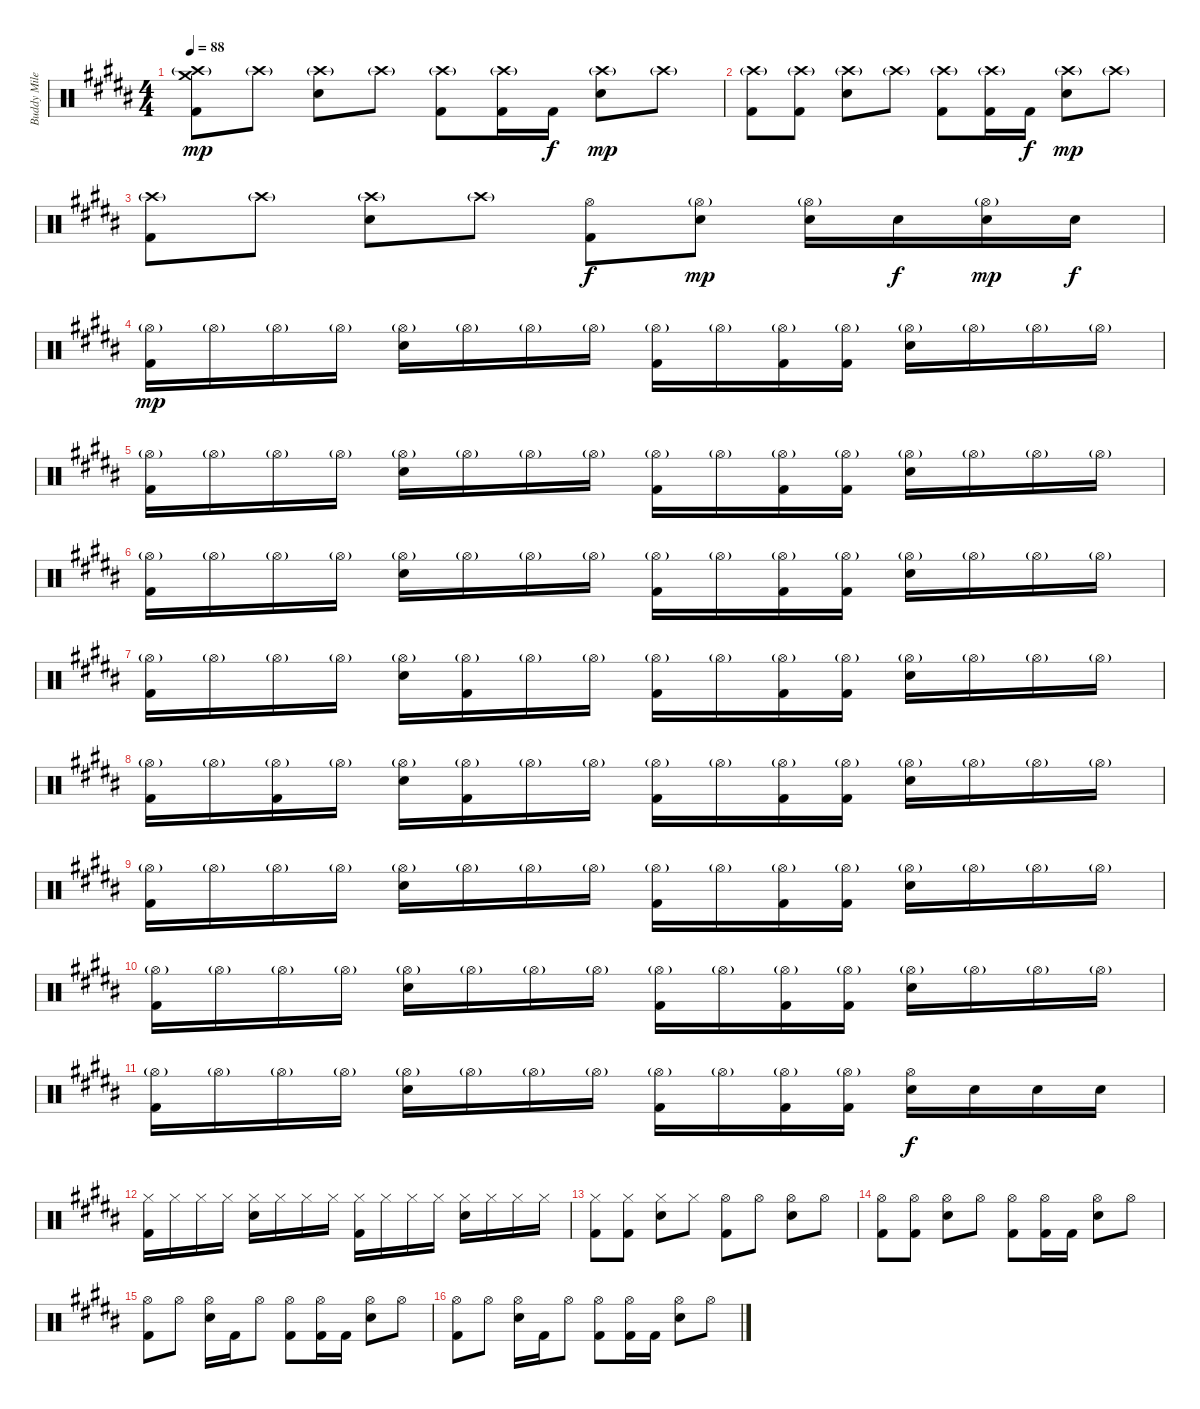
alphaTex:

\track ("Buddy Miles" "Buddy Mile") {instrument percussion}
\staff {score}
\articulation defaults
\ts (4 4)
\tempo 88
\clef neutral
\ks b
("Crash high (hit)"{g} "Kick (hit) 2" "Crash medium (hit)").8{dy mp} "Crash high (hit)"{g}.8 ("Crash high (hit)"{g} "Electric Snare (hit)").8 "Crash high (hit)"{g}.8 ("Crash high (hit)"{g} "Kick (hit) 2").8 ("Crash high (hit)"{g} "Kick (hit) 2").16 "Kick (hit) 2".16{dy f} ("Crash high (hit)"{g} "Electric Snare (hit)").8{dy mp} "Crash high (hit)"{g}.8 |
("Crash high (hit)"{g} "Kick (hit) 2").8 ("Crash high (hit)"{g} "Kick (hit) 2").8 ("Crash high (hit)"{g} "Electric Snare (hit)").8 "Crash high (hit)"{g}.8 ("Crash high (hit)"{g} "Kick (hit) 2").8 ("Crash high (hit)"{g} "Kick (hit) 2").16 "Kick (hit) 2".16{dy f} ("Crash high (hit)"{g} "Electric Snare (hit)").8{dy mp} "Crash high (hit)"{g}.8 |
("Crash high (hit)"{g} "Kick (hit) 2").8 "Crash high (hit)"{g}.8 ("Crash high (hit)"{g} "Electric Snare (hit)").8 "Crash high (hit)"{g}.8 ("Hi-Hat (open)" "Kick (hit) 2").8{dy f} ("Hi-Hat (open)"{g} "Electric Snare (hit)").8{dy mp} ("Hi-Hat (open)"{g} "Electric Snare (hit)").16 "Electric Snare (hit)".16{dy f} ("Hi-Hat (open)"{g} "Electric Snare (hit)").16{dy mp} "Electric Snare (hit)".16{dy f} |
("Hi-Hat (open)"{g} "Kick (hit) 2").16{dy mp} "Hi-Hat (open)"{g}.16 "Hi-Hat (open)"{g}.16 "Hi-Hat (open)"{g}.16 ("Hi-Hat (open)"{g} "Electric Snare (hit)").16 "Hi-Hat (open)"{g}.16 "Hi-Hat (open)"{g}.16 "Hi-Hat (open)"{g}.16 ("Hi-Hat (open)"{g} "Kick (hit) 2").16 "Hi-Hat (open)"{g}.16 ("Hi-Hat (open)"{g} "Kick (hit) 2").16 ("Hi-Hat (open)"{g} "Kick (hit) 2").16 ("Hi-Hat (open)"{g} "Electric Snare (hit)").16 "Hi-Hat (open)"{g}.16 "Hi-Hat (open)"{g}.16 "Hi-Hat (open)"{g}.16 |
("Hi-Hat (open)"{g} "Kick (hit) 2").16 "Hi-Hat (open)"{g}.16 "Hi-Hat (open)"{g}.16 "Hi-Hat (open)"{g}.16 ("Hi-Hat (open)"{g} "Electric Snare (hit)").16 "Hi-Hat (open)"{g}.16 "Hi-Hat (open)"{g}.16 "Hi-Hat (open)"{g}.16 ("Hi-Hat (open)"{g} "Kick (hit) 2").16 "Hi-Hat (open)"{g}.16 ("Hi-Hat (open)"{g} "Kick (hit) 2").16 ("Hi-Hat (open)"{g} "Kick (hit) 2").16 ("Hi-Hat (open)"{g} "Electric Snare (hit)").16 "Hi-Hat (open)"{g}.16 "Hi-Hat (open)"{g}.16 "Hi-Hat (open)"{g}.16 |
("Hi-Hat (open)"{g} "Kick (hit) 2").16 "Hi-Hat (open)"{g}.16 "Hi-Hat (open)"{g}.16 "Hi-Hat (open)"{g}.16 ("Hi-Hat (open)"{g} "Electric Snare (hit)").16 "Hi-Hat (open)"{g}.16 "Hi-Hat (open)"{g}.16 "Hi-Hat (open)"{g}.16 ("Hi-Hat (open)"{g} "Kick (hit) 2").16 "Hi-Hat (open)"{g}.16 ("Hi-Hat (open)"{g} "Kick (hit) 2").16 ("Hi-Hat (open)"{g} "Kick (hit) 2").16 ("Hi-Hat (open)"{g} "Electric Snare (hit)").16 "Hi-Hat (open)"{g}.16 "Hi-Hat (open)"{g}.16 "Hi-Hat (open)"{g}.16 |
("Hi-Hat (open)"{g} "Kick (hit) 2").16 "Hi-Hat (open)"{g}.16 "Hi-Hat (open)"{g}.16 "Hi-Hat (open)"{g}.16 ("Hi-Hat (open)"{g} "Electric Snare (hit)").16 ("Hi-Hat (open)"{g} "Kick (hit) 2").16 "Hi-Hat (open)"{g}.16 "Hi-Hat (open)"{g}.16 ("Hi-Hat (open)"{g} "Kick (hit) 2").16 "Hi-Hat (open)"{g}.16 ("Hi-Hat (open)"{g} "Kick (hit) 2").16 ("Hi-Hat (open)"{g} "Kick (hit) 2").16 ("Hi-Hat (open)"{g} "Electric Snare (hit)").16 "Hi-Hat (open)"{g}.16 "Hi-Hat (open)"{g}.16 "Hi-Hat (open)"{g}.16 |
("Hi-Hat (open)"{g} "Kick (hit) 2").16 "Hi-Hat (open)"{g}.16 ("Hi-Hat (open)"{g} "Kick (hit) 2").16 "Hi-Hat (open)"{g}.16 ("Hi-Hat (open)"{g} "Electric Snare (hit)").16 ("Hi-Hat (open)"{g} "Kick (hit) 2").16 "Hi-Hat (open)"{g}.16 "Hi-Hat (open)"{g}.16 ("Hi-Hat (open)"{g} "Kick (hit) 2").16 "Hi-Hat (open)"{g}.16 ("Hi-Hat (open)"{g} "Kick (hit) 2").16 ("Hi-Hat (open)"{g} "Kick (hit) 2").16 ("Hi-Hat (open)"{g} "Electric Snare (hit)").16 "Hi-Hat (open)"{g}.16 "Hi-Hat (open)"{g}.16 "Hi-Hat (open)"{g}.16 |
("Hi-Hat (open)"{g} "Kick (hit) 2").16 "Hi-Hat (open)"{g}.16 "Hi-Hat (open)"{g}.16 "Hi-Hat (open)"{g}.16 ("Hi-Hat (open)"{g} "Electric Snare (hit)").16 "Hi-Hat (open)"{g}.16 "Hi-Hat (open)"{g}.16 "Hi-Hat (open)"{g}.16 ("Hi-Hat (open)"{g} "Kick (hit) 2").16 "Hi-Hat (open)"{g}.16 ("Hi-Hat (open)"{g} "Kick (hit) 2").16 ("Hi-Hat (open)"{g} "Kick (hit) 2").16 ("Hi-Hat (open)"{g} "Electric Snare (hit)").16 "Hi-Hat (open)"{g}.16 "Hi-Hat (open)"{g}.16 "Hi-Hat (open)"{g}.16 |
("Hi-Hat (open)"{g} "Kick (hit) 2").16 "Hi-Hat (open)"{g}.16 "Hi-Hat (open)"{g}.16 "Hi-Hat (open)"{g}.16 ("Hi-Hat (open)"{g} "Electric Snare (hit)").16 "Hi-Hat (open)"{g}.16 "Hi-Hat (open)"{g}.16 "Hi-Hat (open)"{g}.16 ("Hi-Hat (open)"{g} "Kick (hit) 2").16 "Hi-Hat (open)"{g}.16 ("Hi-Hat (open)"{g} "Kick (hit) 2").16 ("Hi-Hat (open)"{g} "Kick (hit) 2").16 ("Hi-Hat (open)"{g} "Electric Snare (hit)").16 "Hi-Hat (open)"{g}.16 "Hi-Hat (open)"{g}.16 "Hi-Hat (open)"{g}.16 |
("Hi-Hat (open)"{g} "Kick (hit) 2").16 "Hi-Hat (open)"{g}.16 "Hi-Hat (open)"{g}.16 "Hi-Hat (open)"{g}.16 ("Hi-Hat (open)"{g} "Electric Snare (hit)").16 "Hi-Hat (open)"{g}.16 "Hi-Hat (open)"{g}.16 "Hi-Hat (open)"{g}.16 ("Hi-Hat (open)"{g} "Kick (hit) 2").16 "Hi-Hat (open)"{g}.16 ("Hi-Hat (open)"{g} "Kick (hit) 2").16 ("Hi-Hat (open)"{g} "Kick (hit) 2").16 ("Hi-Hat (open)" "Electric Snare (hit)").16{dy f} "Electric Snare (hit)".16 "Electric Snare (hit)".16 "Electric Snare (hit)".16 |
("Hi-Hat (closed)" "Kick (hit) 2").16 "Hi-Hat (closed)".16 "Hi-Hat (closed)".16 "Hi-Hat (closed)".16 ("Hi-Hat (closed)" "Electric Snare (hit)").16 "Hi-Hat (closed)".16 "Hi-Hat (closed)".16 "Hi-Hat (closed)".16 ("Hi-Hat (closed)" "Kick (hit) 2").16 "Hi-Hat (closed)".16 "Hi-Hat (closed)".16 "Hi-Hat (closed)".16 ("Hi-Hat (closed)" "Electric Snare (hit)").16 "Hi-Hat (closed)".16 "Hi-Hat (closed)".16 "Hi-Hat (closed)".16 |
("Hi-Hat (closed)" "Kick (hit) 2").8 ("Hi-Hat (closed)" "Kick (hit) 2").8 ("Hi-Hat (closed)" "Electric Snare (hit)").8 "Hi-Hat (closed)".8 ("Hi-Hat (open)" "Kick (hit) 2").8 "Hi-Hat (open)".8 ("Hi-Hat (open)" "Electric Snare (hit)").8 "Hi-Hat (open)".8 |
("Hi-Hat (open)" "Kick (hit) 2").8 ("Hi-Hat (open)" "Kick (hit) 2").8 ("Hi-Hat (open)" "Electric Snare (hit)").8 "Hi-Hat (open)".8 ("Hi-Hat (open)" "Kick (hit) 2").8 ("Hi-Hat (open)" "Kick (hit) 2").16 "Kick (hit) 2".16 ("Hi-Hat (open)" "Electric Snare (hit)").8 "Hi-Hat (open)".8 |
("Hi-Hat (open)" "Kick (hit) 2").8 "Hi-Hat (open)".8 ("Hi-Hat (open)" "Electric Snare (hit)").16 "Kick (hit) 2".16 "Hi-Hat (open)".8 ("Hi-Hat (open)" "Kick (hit) 2").8 ("Hi-Hat (open)" "Kick (hit) 2").16 "Kick (hit) 2".16 ("Hi-Hat (open)" "Electric Snare (hit)").8 "Hi-Hat (open)".8 |
("Hi-Hat (open)" "Kick (hit) 2").8 "Hi-Hat (open)".8 ("Hi-Hat (open)" "Electric Snare (hit)").16 "Kick (hit) 2".16 "Hi-Hat (open)".8 ("Hi-Hat (open)" "Kick (hit) 2").8 ("Hi-Hat (open)" "Kick (hit) 2").16 "Kick (hit) 2".16 ("Hi-Hat (open)" "Electric Snare (hit)").8 "Hi-Hat (open)".8
